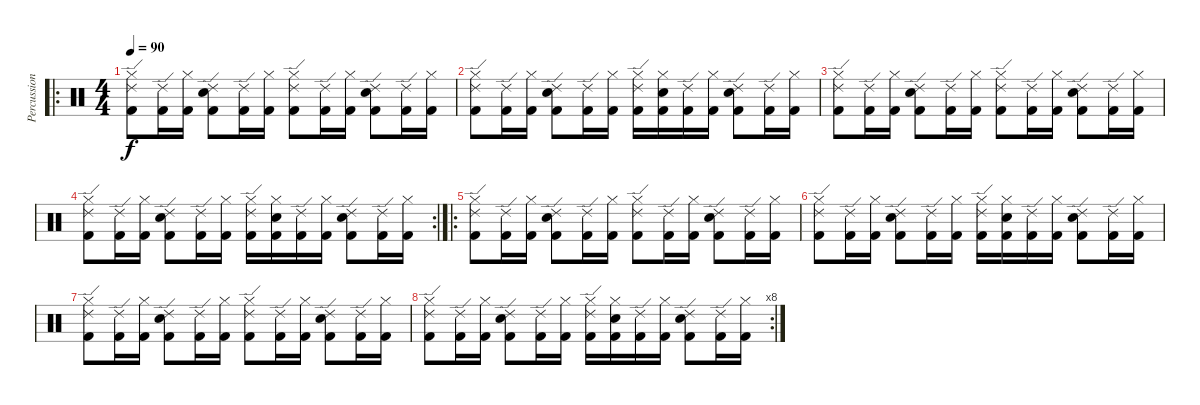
\track ("Percussions" "Percussion") {instrument percussion}
\staff {score}
\articulation defaults
\ro
\ts (4 4)
\tempo 90
\clef neutral
\ks c
("Hi-Hat (closed)" "Kick (hit) 2" "Ride (edge) 2").8{dy f} ("Kick (hit) 2" "Ride (edge) 2").16 ("Kick (hit) 2" "Hi-Hat (closed)").16 ("Electric Snare (hit)" "Kick (hit) 2" "Ride (edge) 2").8 ("Kick (hit) 2" "Ride (edge) 2").16 ("Kick (hit) 2" "Hi-Hat (closed)").16 ("Hi-Hat (closed)" "Kick (hit) 2" "Ride (edge) 2").8 ("Kick (hit) 2" "Ride (edge) 2").16 ("Kick (hit) 2" "Hi-Hat (closed)").16 ("Electric Snare (hit)" "Kick (hit) 2" "Ride (edge) 2").8 ("Kick (hit) 2" "Ride (edge) 2").16 ("Kick (hit) 2" "Hi-Hat (closed)").16 |
("Hi-Hat (closed)" "Kick (hit) 2" "Ride (edge) 2").8 ("Kick (hit) 2" "Ride (edge) 2").16 ("Kick (hit) 2" "Hi-Hat (closed)").16 ("Electric Snare (hit)" "Kick (hit) 2" "Ride (edge) 2").8 ("Kick (hit) 2" "Ride (edge) 2").16 ("Kick (hit) 2" "Hi-Hat (closed)").16 ("Hi-Hat (closed)" "Kick (hit) 2" "Ride (edge) 2").16 ("Electric Snare (hit)" "Kick (hit) 2" "Hi-Hat (closed)").16 ("Kick (hit) 2" "Ride (edge) 2").16 ("Kick (hit) 2" "Hi-Hat (closed)").16 ("Electric Snare (hit)" "Kick (hit) 2" "Ride (edge) 2").8 ("Kick (hit) 2" "Ride (edge) 2").16 ("Kick (hit) 2" "Hi-Hat (closed)").16 |
("Hi-Hat (closed)" "Kick (hit) 2" "Ride (edge) 2").8 ("Kick (hit) 2" "Ride (edge) 2").16 ("Kick (hit) 2" "Hi-Hat (closed)").16 ("Electric Snare (hit)" "Kick (hit) 2" "Ride (edge) 2").8 ("Kick (hit) 2" "Ride (edge) 2").16 ("Kick (hit) 2" "Hi-Hat (closed)").16 ("Hi-Hat (closed)" "Kick (hit) 2" "Ride (edge) 2").8 ("Kick (hit) 2" "Ride (edge) 2").16 ("Kick (hit) 2" "Hi-Hat (closed)").16 ("Electric Snare (hit)" "Kick (hit) 2" "Ride (edge) 2").8 ("Kick (hit) 2" "Ride (edge) 2").16 ("Kick (hit) 2" "Hi-Hat (closed)").16 |
\rc 2
("Hi-Hat (closed)" "Kick (hit) 2" "Ride (edge) 2").8 ("Kick (hit) 2" "Ride (edge) 2").16 ("Kick (hit) 2" "Hi-Hat (closed)").16 ("Electric Snare (hit)" "Kick (hit) 2" "Ride (edge) 2").8 ("Kick (hit) 2" "Ride (edge) 2").16 ("Kick (hit) 2" "Hi-Hat (closed)").16 ("Hi-Hat (closed)" "Kick (hit) 2" "Ride (edge) 2").16 ("Electric Snare (hit)" "Kick (hit) 2" "Hi-Hat (closed)").16 ("Kick (hit) 2" "Ride (edge) 2").16 ("Kick (hit) 2" "Hi-Hat (closed)").16 ("Electric Snare (hit)" "Kick (hit) 2" "Ride (edge) 2").8 ("Kick (hit) 2" "Ride (edge) 2").16 ("Kick (hit) 2" "Hi-Hat (closed)").16 |
\ro
("Hi-Hat (closed)" "Kick (hit) 2" "Ride (edge) 2").8 ("Kick (hit) 2" "Ride (edge) 2").16 ("Kick (hit) 2" "Hi-Hat (closed)").16 ("Electric Snare (hit)" "Kick (hit) 2" "Ride (edge) 2").8 ("Kick (hit) 2" "Ride (edge) 2").16 ("Kick (hit) 2" "Hi-Hat (closed)").16 ("Hi-Hat (closed)" "Kick (hit) 2" "Ride (edge) 2").8 ("Kick (hit) 2" "Ride (edge) 2").16 ("Kick (hit) 2" "Hi-Hat (closed)").16 ("Electric Snare (hit)" "Kick (hit) 2" "Ride (edge) 2").8 ("Kick (hit) 2" "Ride (edge) 2").16 ("Kick (hit) 2" "Hi-Hat (closed)").16 |
("Hi-Hat (closed)" "Kick (hit) 2" "Ride (edge) 2").8 ("Kick (hit) 2" "Ride (edge) 2").16 ("Kick (hit) 2" "Hi-Hat (closed)").16 ("Electric Snare (hit)" "Kick (hit) 2" "Ride (edge) 2").8 ("Kick (hit) 2" "Ride (edge) 2").16 ("Kick (hit) 2" "Hi-Hat (closed)").16 ("Hi-Hat (closed)" "Kick (hit) 2" "Ride (edge) 2").16 ("Electric Snare (hit)" "Kick (hit) 2" "Hi-Hat (closed)").16 ("Kick (hit) 2" "Ride (edge) 2").16 ("Kick (hit) 2" "Hi-Hat (closed)").16 ("Electric Snare (hit)" "Kick (hit) 2" "Ride (edge) 2").8 ("Kick (hit) 2" "Ride (edge) 2").16 ("Kick (hit) 2" "Hi-Hat (closed)").16 |
("Hi-Hat (closed)" "Kick (hit) 2" "Ride (edge) 2").8 ("Kick (hit) 2" "Ride (edge) 2").16 ("Kick (hit) 2" "Hi-Hat (closed)").16 ("Electric Snare (hit)" "Kick (hit) 2" "Ride (edge) 2").8 ("Kick (hit) 2" "Ride (edge) 2").16 ("Kick (hit) 2" "Hi-Hat (closed)").16 ("Hi-Hat (closed)" "Kick (hit) 2" "Ride (edge) 2").8 ("Kick (hit) 2" "Ride (edge) 2").16 ("Kick (hit) 2" "Hi-Hat (closed)").16 ("Electric Snare (hit)" "Kick (hit) 2" "Ride (edge) 2").8 ("Kick (hit) 2" "Ride (edge) 2").16 ("Kick (hit) 2" "Hi-Hat (closed)").16 |
\rc 8
("Hi-Hat (closed)" "Kick (hit) 2" "Ride (edge) 2").8 ("Kick (hit) 2" "Ride (edge) 2").16 ("Kick (hit) 2" "Hi-Hat (closed)").16 ("Electric Snare (hit)" "Kick (hit) 2" "Ride (edge) 2").8 ("Kick (hit) 2" "Ride (edge) 2").16 ("Kick (hit) 2" "Hi-Hat (closed)").16 ("Hi-Hat (closed)" "Kick (hit) 2" "Ride (edge) 2").16 ("Electric Snare (hit)" "Kick (hit) 2" "Hi-Hat (closed)").16 ("Kick (hit) 2" "Ride (edge) 2").16 ("Kick (hit) 2" "Hi-Hat (closed)").16 ("Electric Snare (hit)" "Kick (hit) 2" "Ride (edge) 2").8 ("Kick (hit) 2" "Ride (edge) 2").16 ("Kick (hit) 2" "Hi-Hat (closed)").16
